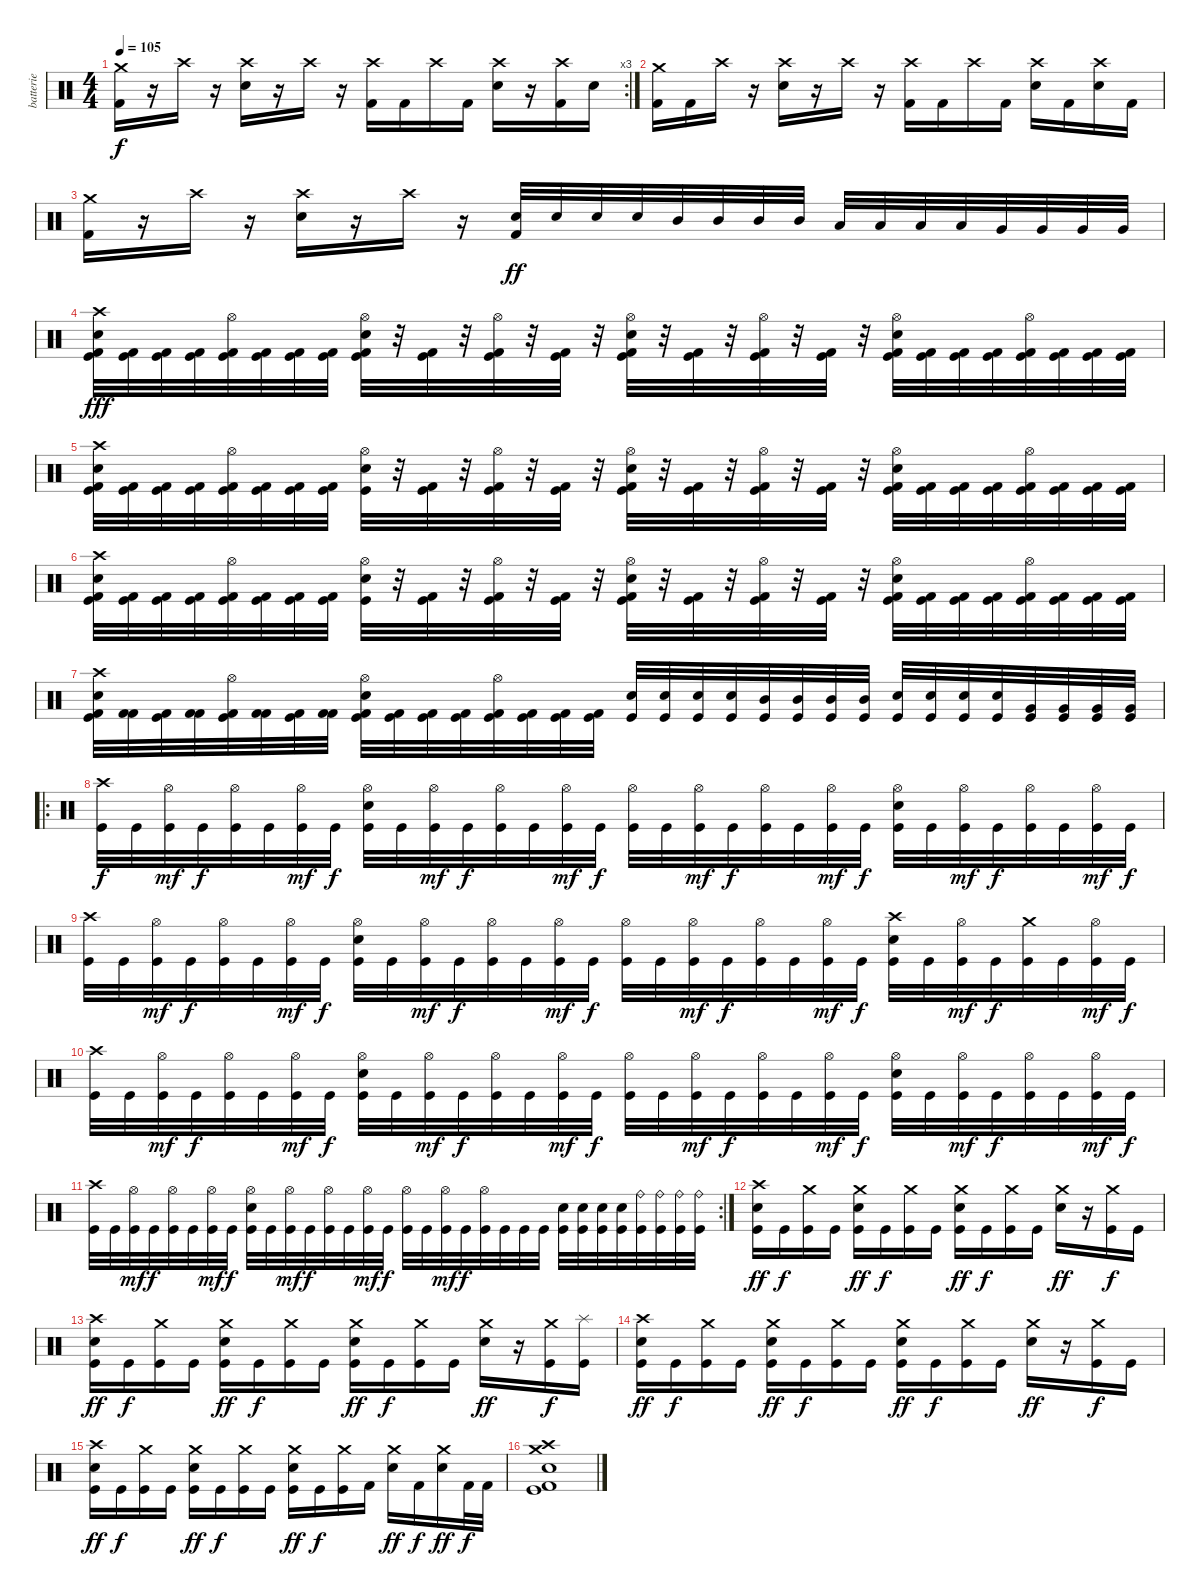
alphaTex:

\track ("batterie" "batterie") {instrument percussion}
\staff {score}
\articulation defaults
\rc 3
\ts (4 4)
\tempo 105
\clef neutral
\ks c
("Crash medium (hit)" "Kick (hit) 2").16{dy f} r.16 "Crash high (hit)".16 r.16 ("Crash high (hit)" "Electric Snare (hit)").16 r.16 "Crash high (hit)".16 r.16 ("Crash high (hit)" "Kick (hit) 2").16 "Kick (hit) 2".16 "Crash high (hit)".16 "Kick (hit) 2".16 ("Crash high (hit)" "Electric Snare (hit)").16 r.16 ("Crash high (hit)" "Kick (hit) 2").16 "Electric Snare (hit)".16 |
("Crash medium (hit)" "Kick (hit) 2").16 "Kick (hit) 2".16 "Crash high (hit)".16 r.16 ("Crash high (hit)" "Electric Snare (hit)").16 r.16 "Crash high (hit)".16 r.16 ("Crash high (hit)" "Kick (hit) 2").16 "Kick (hit) 2".16 "Crash high (hit)".16 "Kick (hit) 2".16 ("Crash high (hit)" "Electric Snare (hit)").16 "Kick (hit) 2".16 ("Crash high (hit)" "Electric Snare (hit)").16 "Kick (hit) 2".16 |
("Crash medium (hit)" "Kick (hit) 2").16 r.16 "Crash high (hit)".16 r.16 ("Crash high (hit)" "Electric Snare (hit)").16 r.16 "Crash high (hit)".16 r.16 ("Electric Snare (hit)" "Kick (hit) 2").32{dy ff} "Electric Snare (hit)".32 "Electric Snare (hit)".32 "Electric Snare (hit)".32 "Mid Tom (hit)".32 "Mid Tom (hit)".32 "Mid Tom (hit)".32 "Mid Tom (hit)".32 "Low Tom (hit)".32 "Low Tom (hit)".32 "Low Tom (hit)".32 "Low Tom (hit)".32 "Very Low Tom (hit)".32 "Very Low Tom (hit)".32 "Very Low Tom (hit)".32 "Very Low Tom (hit)".32 |
("Crash high (hit)" "Electric Snare (hit)" "Kick (hit) 2" "Kick (hit)").32{dy fff} ("Kick (hit) 2" "Kick (hit)").32 ("Kick (hit) 2" "Kick (hit)").32 ("Kick (hit) 2" "Kick (hit)").32 ("Hi-Hat (open)" "Kick (hit) 2" "Kick (hit)").32 ("Kick (hit) 2" "Kick (hit)").32 ("Kick (hit) 2" "Kick (hit)").32 ("Kick (hit) 2" "Kick (hit)").32 ("Hi-Hat (open)" "Electric Snare (hit)" "Kick (hit) 2" "Kick (hit)").32 r.32 ("Kick (hit) 2" "Kick (hit)").32 r.32 ("Hi-Hat (open)" "Kick (hit) 2" "Kick (hit)").32 r.32 ("Kick (hit) 2" "Kick (hit)").32 r.32 ("Hi-Hat (open)" "Electric Snare (hit)" "Kick (hit) 2" "Kick (hit)").32 r.32 ("Kick (hit) 2" "Kick (hit)").32 r.32 ("Hi-Hat (open)" "Kick (hit) 2" "Kick (hit)").32 r.32 ("Kick (hit) 2" "Kick (hit)").32 r.32 ("Hi-Hat (open)" "Electric Snare (hit)" "Kick (hit) 2" "Kick (hit)").32 ("Kick (hit) 2" "Kick (hit)").32 ("Kick (hit) 2" "Kick (hit)").32 ("Kick (hit) 2" "Kick (hit)").32 ("Hi-Hat (open)" "Kick (hit) 2" "Kick (hit)").32 ("Kick (hit) 2" "Kick (hit)").32 ("Kick (hit) 2" "Kick (hit)").32 ("Kick (hit) 2" "Kick (hit)").32 |
("Crash high (hit)" "Electric Snare (hit)" "Kick (hit) 2" "Kick (hit)").32 ("Kick (hit) 2" "Kick (hit)").32 ("Kick (hit) 2" "Kick (hit)").32 ("Kick (hit) 2" "Kick (hit)").32 ("Hi-Hat (open)" "Kick (hit) 2" "Kick (hit)").32 ("Kick (hit) 2" "Kick (hit)").32 ("Kick (hit) 2" "Kick (hit)").32 ("Kick (hit) 2" "Kick (hit)").32 ("Hi-Hat (open)" "Electric Snare (hit)" "Kick (hit)").32 r.32 ("Kick (hit) 2" "Kick (hit)").32 r.32 ("Hi-Hat (open)" "Kick (hit) 2" "Kick (hit)").32 r.32 ("Kick (hit) 2" "Kick (hit)").32 r.32 ("Hi-Hat (open)" "Electric Snare (hit)" "Kick (hit) 2" "Kick (hit)").32 r.32 ("Kick (hit) 2" "Kick (hit)").32 r.32 ("Hi-Hat (open)" "Kick (hit) 2" "Kick (hit)").32 r.32 ("Kick (hit) 2" "Kick (hit)").32 r.32 ("Hi-Hat (open)" "Electric Snare (hit)" "Kick (hit) 2" "Kick (hit)").32 ("Kick (hit) 2" "Kick (hit)").32 ("Kick (hit) 2" "Kick (hit)").32 ("Kick (hit) 2" "Kick (hit)").32 ("Hi-Hat (open)" "Kick (hit) 2" "Kick (hit)").32 ("Kick (hit) 2" "Kick (hit)").32 ("Kick (hit) 2" "Kick (hit)").32 ("Kick (hit) 2" "Kick (hit)").32 |
("Crash high (hit)" "Electric Snare (hit)" "Kick (hit) 2" "Kick (hit)").32 ("Kick (hit) 2" "Kick (hit)").32 ("Kick (hit) 2" "Kick (hit)").32 ("Kick (hit) 2" "Kick (hit)").32 ("Hi-Hat (open)" "Kick (hit) 2" "Kick (hit)").32 ("Kick (hit) 2" "Kick (hit)").32 ("Kick (hit) 2" "Kick (hit)").32 ("Kick (hit) 2" "Kick (hit)").32 ("Hi-Hat (open)" "Electric Snare (hit)" "Kick (hit)").32 r.32 ("Kick (hit) 2" "Kick (hit)").32 r.32 ("Hi-Hat (open)" "Kick (hit) 2" "Kick (hit)").32 r.32 ("Kick (hit) 2" "Kick (hit)").32 r.32 ("Hi-Hat (open)" "Electric Snare (hit)" "Kick (hit) 2" "Kick (hit)").32 r.32 ("Kick (hit) 2" "Kick (hit)").32 r.32 ("Hi-Hat (open)" "Kick (hit) 2" "Kick (hit)").32 r.32 ("Kick (hit) 2" "Kick (hit)").32 r.32 ("Hi-Hat (open)" "Electric Snare (hit)" "Kick (hit) 2" "Kick (hit)").32 ("Kick (hit) 2" "Kick (hit)").32 ("Kick (hit) 2" "Kick (hit)").32 ("Kick (hit) 2" "Kick (hit)").32 ("Hi-Hat (open)" "Kick (hit) 2" "Kick (hit)").32 ("Kick (hit) 2" "Kick (hit)").32 ("Kick (hit) 2" "Kick (hit)").32 ("Kick (hit) 2" "Kick (hit)").32 |
("Crash high (hit)" "Electric Snare (hit)" "Kick (hit) 2" "Kick (hit)").32 ("Kick (hit) 2" "Kick (hit) 2").32 ("Kick (hit) 2" "Kick (hit)").32 ("Kick (hit) 2" "Kick (hit) 2").32 ("Hi-Hat (open)" "Kick (hit) 2" "Kick (hit)").32 ("Kick (hit) 2" "Kick (hit) 2").32 ("Kick (hit) 2" "Kick (hit)").32 ("Kick (hit) 2" "Kick (hit) 2").32 ("Hi-Hat (open)" "Electric Snare (hit)" "Kick (hit) 2" "Kick (hit)").32 ("Kick (hit) 2" "Kick (hit)").32 ("Kick (hit) 2" "Kick (hit)").32 ("Kick (hit) 2" "Kick (hit)").32 ("Hi-Hat (open)" "Kick (hit) 2" "Kick (hit)").32 ("Kick (hit) 2" "Kick (hit)").32 ("Kick (hit) 2" "Kick (hit)").32 ("Kick (hit) 2" "Kick (hit)").32 ("Electric Snare (hit)" "Kick (hit)").32 ("Electric Snare (hit)" "Kick (hit)").32 ("Electric Snare (hit)" "Kick (hit)").32 ("Electric Snare (hit)" "Kick (hit)").32 ("Mid Tom (hit)" "Kick (hit)").32 ("Mid Tom (hit)" "Kick (hit)").32 ("Mid Tom (hit)" "Kick (hit)").32 ("Mid Tom (hit)" "Kick (hit)").32 ("Electric Snare (hit)" "Kick (hit)").32 ("Electric Snare (hit)" "Kick (hit)").32 ("Electric Snare (hit)" "Kick (hit)").32 ("Electric Snare (hit)" "Kick (hit)").32 ("Very Low Tom (hit)" "Kick (hit)").32 ("Very Low Tom (hit)" "Kick (hit)").32 ("Very Low Tom (hit)" "Kick (hit)").32 ("Very Low Tom (hit)" "Kick (hit)").32 |
\ro
("Crash high (hit)" "Kick (hit)").32{dy f} "Kick (hit)".32 ("Hi-Hat (open)" "Kick (hit)").32{dy mf} "Kick (hit)".32{dy f} ("Hi-Hat (open)" "Kick (hit)").32 "Kick (hit)".32 ("Hi-Hat (open)" "Kick (hit)").32{dy mf} "Kick (hit)".32{dy f} ("Hi-Hat (open)" "Electric Snare (hit)" "Kick (hit)").32 "Kick (hit)".32 ("Hi-Hat (open)" "Kick (hit)").32{dy mf} "Kick (hit)".32{dy f} ("Hi-Hat (open)" "Kick (hit)").32 "Kick (hit)".32 ("Hi-Hat (open)" "Kick (hit)").32{dy mf} "Kick (hit)".32{dy f} ("Hi-Hat (open)" "Kick (hit)").32 "Kick (hit)".32 ("Hi-Hat (open)" "Kick (hit)").32{dy mf} "Kick (hit)".32{dy f} ("Hi-Hat (open)" "Kick (hit)").32 "Kick (hit)".32 ("Hi-Hat (open)" "Kick (hit)").32{dy mf} "Kick (hit)".32{dy f} ("Hi-Hat (open)" "Electric Snare (hit)" "Kick (hit)").32 "Kick (hit)".32 ("Hi-Hat (open)" "Kick (hit)").32{dy mf} "Kick (hit)".32{dy f} ("Hi-Hat (open)" "Kick (hit)").32 "Kick (hit)".32 ("Hi-Hat (open)" "Kick (hit)").32{dy mf} "Kick (hit)".32{dy f} |
("Crash high (hit)" "Kick (hit)").32 "Kick (hit)".32 ("Hi-Hat (open)" "Kick (hit)").32{dy mf} "Kick (hit)".32{dy f} ("Hi-Hat (open)" "Kick (hit)").32 "Kick (hit)".32 ("Hi-Hat (open)" "Kick (hit)").32{dy mf} "Kick (hit)".32{dy f} ("Hi-Hat (open)" "Electric Snare (hit)" "Kick (hit)").32 "Kick (hit)".32 ("Hi-Hat (open)" "Kick (hit)").32{dy mf} "Kick (hit)".32{dy f} ("Hi-Hat (open)" "Kick (hit)").32 "Kick (hit)".32 ("Hi-Hat (open)" "Kick (hit)").32{dy mf} "Kick (hit)".32{dy f} ("Hi-Hat (open)" "Kick (hit)").32 "Kick (hit)".32 ("Hi-Hat (open)" "Kick (hit)").32{dy mf} "Kick (hit)".32{dy f} ("Hi-Hat (open)" "Kick (hit)").32 "Kick (hit)".32 ("Hi-Hat (open)" "Kick (hit)").32{dy mf} "Kick (hit)".32{dy f} ("Crash high (hit)" "Electric Snare (hit)" "Kick (hit)").32 "Kick (hit)".32 ("Hi-Hat (open)" "Kick (hit)").32{dy mf} "Kick (hit)".32{dy f} ("Crash medium (hit)" "Kick (hit)").32 "Kick (hit)".32 ("Hi-Hat (open)" "Kick (hit)").32{dy mf} "Kick (hit)".32{dy f} |
("Crash high (hit)" "Kick (hit)").32 "Kick (hit)".32 ("Hi-Hat (open)" "Kick (hit)").32{dy mf} "Kick (hit)".32{dy f} ("Hi-Hat (open)" "Kick (hit)").32 "Kick (hit)".32 ("Hi-Hat (open)" "Kick (hit)").32{dy mf} "Kick (hit)".32{dy f} ("Hi-Hat (open)" "Electric Snare (hit)" "Kick (hit)").32 "Kick (hit)".32 ("Hi-Hat (open)" "Kick (hit)").32{dy mf} "Kick (hit)".32{dy f} ("Hi-Hat (open)" "Kick (hit)").32 "Kick (hit)".32 ("Hi-Hat (open)" "Kick (hit)").32{dy mf} "Kick (hit)".32{dy f} ("Hi-Hat (open)" "Kick (hit)").32 "Kick (hit)".32 ("Hi-Hat (open)" "Kick (hit)").32{dy mf} "Kick (hit)".32{dy f} ("Hi-Hat (open)" "Kick (hit)").32 "Kick (hit)".32 ("Hi-Hat (open)" "Kick (hit)").32{dy mf} "Kick (hit)".32{dy f} ("Hi-Hat (open)" "Electric Snare (hit)" "Kick (hit)").32 "Kick (hit)".32 ("Hi-Hat (open)" "Kick (hit)").32{dy mf} "Kick (hit)".32{dy f} ("Hi-Hat (open)" "Kick (hit)").32 "Kick (hit)".32 ("Hi-Hat (open)" "Kick (hit)").32{dy mf} "Kick (hit)".32{dy f} |
\rc 2
("Crash high (hit)" "Kick (hit)").32 "Kick (hit)".32 ("Hi-Hat (open)" "Kick (hit)").32{dy mf} "Kick (hit)".32{dy f} ("Hi-Hat (open)" "Kick (hit)").32 "Kick (hit)".32 ("Hi-Hat (open)" "Kick (hit)").32{dy mf} "Kick (hit)".32{dy f} ("Hi-Hat (open)" "Electric Snare (hit)" "Kick (hit)").32 "Kick (hit)".32 ("Hi-Hat (open)" "Kick (hit)").32{dy mf} "Kick (hit)".32{dy f} ("Hi-Hat (open)" "Kick (hit)").32 "Kick (hit)".32 ("Hi-Hat (open)" "Kick (hit)").32{dy mf} "Kick (hit)".32{dy f} ("Hi-Hat (open)" "Kick (hit)").32 "Kick (hit)".32 ("Hi-Hat (open)" "Kick (hit)").32{dy mf} "Kick (hit)".32{dy f} ("Hi-Hat (open)" "Kick (hit)").32 "Kick (hit)".32 "Kick (hit)".32 "Kick (hit)".32 ("Electric Snare (hit)" "Kick (hit)").32 ("Electric Snare (hit)" "Kick (hit)").32 ("Electric Snare (hit)" "Kick (hit)").32 ("Electric Snare (hit)" "Kick (hit)").32 ("Ride (bell)" "Kick (hit)").32 ("Ride (bell)" "Kick (hit)").32 ("Ride (bell)" "Kick (hit)").32 ("Ride (bell)" "Kick (hit)").32 |
("Crash high (hit)" "Electric Snare (hit)" "Kick (hit)").16{dy ff} "Kick (hit)".16{dy f} ("Crash medium (hit)" "Kick (hit)").16 "Kick (hit)".16 ("Crash medium (hit)" "Electric Snare (hit)" "Kick (hit)").16{dy ff} "Kick (hit)".16{dy f} ("Crash medium (hit)" "Kick (hit)").16 "Kick (hit)".16 ("Crash medium (hit)" "Electric Snare (hit)" "Kick (hit)").16{dy ff} "Kick (hit)".16{dy f} ("Crash medium (hit)" "Kick (hit)").16 "Kick (hit)".16 ("Crash medium (hit)" "Electric Snare (hit)").16{dy ff} r.16 ("Crash medium (hit)" "Kick (hit)").16{dy f} "Kick (hit)".16 |
("Crash high (hit)" "Electric Snare (hit)" "Kick (hit)").16{dy ff} "Kick (hit)".16{dy f} ("Crash medium (hit)" "Kick (hit)").16 "Kick (hit)".16 ("Crash medium (hit)" "Electric Snare (hit)" "Kick (hit)").16{dy ff} "Kick (hit)".16{dy f} ("Crash medium (hit)" "Kick (hit)").16 "Kick (hit)".16 ("Crash medium (hit)" "Electric Snare (hit)" "Kick (hit)").16{dy ff} "Kick (hit)".16{dy f} ("Crash medium (hit)" "Kick (hit)").16 "Kick (hit)".16 ("Crash medium (hit)" "Electric Snare (hit)").16{dy ff} r.16 ("Crash medium (hit)" "Kick (hit)").16{dy f} ("Splash (hit)" "Kick (hit)").16 |
("Crash high (hit)" "Electric Snare (hit)" "Kick (hit)").16{dy ff} "Kick (hit)".16{dy f} ("Crash medium (hit)" "Kick (hit)").16 "Kick (hit)".16 ("Crash medium (hit)" "Electric Snare (hit)" "Kick (hit)").16{dy ff} "Kick (hit)".16{dy f} ("Crash medium (hit)" "Kick (hit)").16 "Kick (hit)".16 ("Crash medium (hit)" "Electric Snare (hit)" "Kick (hit)").16{dy ff} "Kick (hit)".16{dy f} ("Crash medium (hit)" "Kick (hit)").16 "Kick (hit)".16 ("Crash medium (hit)" "Electric Snare (hit)").16{dy ff} r.16 ("Crash medium (hit)" "Kick (hit)").16{dy f} "Kick (hit)".16 |
("Crash high (hit)" "Electric Snare (hit)" "Kick (hit)").16{dy ff} "Kick (hit)".16{dy f} ("Crash medium (hit)" "Kick (hit)").16 "Kick (hit)".16 ("Crash medium (hit)" "Electric Snare (hit)" "Kick (hit)").16{dy ff} "Kick (hit)".16{dy f} ("Crash medium (hit)" "Kick (hit)").16 "Kick (hit)".16 ("Crash medium (hit)" "Electric Snare (hit)" "Kick (hit)").16{dy ff} "Kick (hit)".16{dy f} ("Crash medium (hit)" "Kick (hit)").16 "Kick (hit) 2".16 ("Crash medium (hit)" "Electric Snare (hit)").16{dy ff} "Kick (hit) 2".16{dy f} ("Crash medium (hit)" "Electric Snare (hit)").16{dy ff} "Kick (hit) 2".32{dy f} "Kick (hit) 2".32 |
("Crash medium (hit)" "Crash high (hit)" "Electric Snare (hit)" "Kick (hit)" "Kick (hit) 2").1
